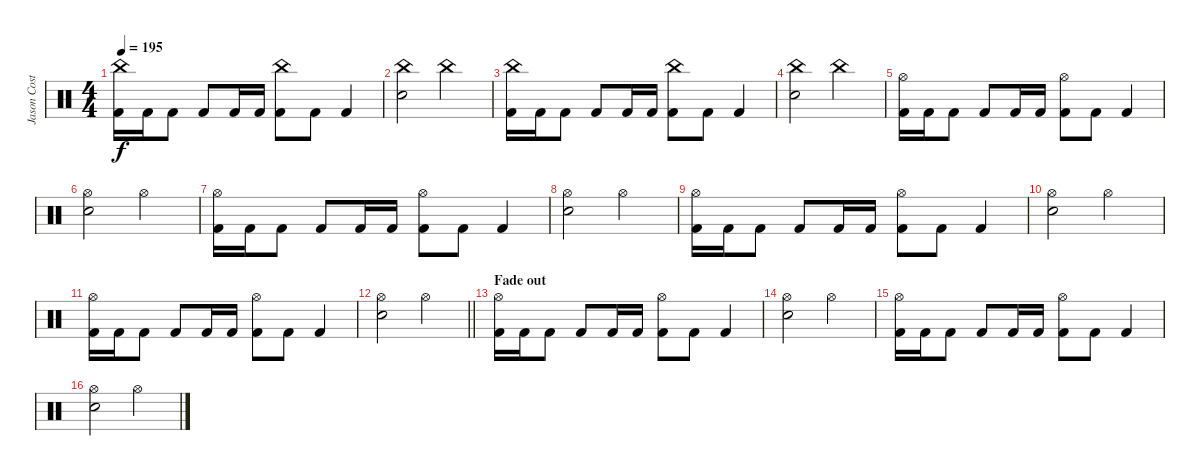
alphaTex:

\track ("Jason Costa" "Jason Cost") {instrument percussion}
\staff {score}
\articulation defaults
\ts (4 4)
\tempo 195
\clef neutral
\ks c
("China (hit)" "Kick (hit) 2").16{dy f} "Kick (hit) 2".16 "Kick (hit) 2".8 "Kick (hit) 2".8 "Kick (hit) 2".16 "Kick (hit) 2".16 ("China (hit)" "Kick (hit) 2").8 "Kick (hit) 2".8 "Kick (hit) 2".4 |
("China (hit)" "Electric Snare (hit)").2 "China (hit)".2 |
("China (hit)" "Kick (hit) 2").16 "Kick (hit) 2".16 "Kick (hit) 2".8 "Kick (hit) 2".8 "Kick (hit) 2".16 "Kick (hit) 2".16 ("China (hit)" "Kick (hit) 2").8 "Kick (hit) 2".8 "Kick (hit) 2".4 |
("China (hit)" "Electric Snare (hit)").2 "China (hit)".2 |
("Hi-Hat (open)" "Kick (hit) 2").16 "Kick (hit) 2".16 "Kick (hit) 2".8 "Kick (hit) 2".8 "Kick (hit) 2".16 "Kick (hit) 2".16 ("Hi-Hat (open)" "Kick (hit) 2").8 "Kick (hit) 2".8 "Kick (hit) 2".4 |
("Hi-Hat (open)" "Electric Snare (hit)").2 "Hi-Hat (open)".2 |
("Hi-Hat (open)" "Kick (hit) 2").16 "Kick (hit) 2".16 "Kick (hit) 2".8 "Kick (hit) 2".8 "Kick (hit) 2".16 "Kick (hit) 2".16 ("Hi-Hat (open)" "Kick (hit) 2").8 "Kick (hit) 2".8 "Kick (hit) 2".4 |
("Hi-Hat (open)" "Electric Snare (hit)").2 "Hi-Hat (open)".2 |
("Hi-Hat (open)" "Kick (hit) 2").16 "Kick (hit) 2".16 "Kick (hit) 2".8 "Kick (hit) 2".8 "Kick (hit) 2".16 "Kick (hit) 2".16 ("Hi-Hat (open)" "Kick (hit) 2").8 "Kick (hit) 2".8 "Kick (hit) 2".4 |
("Hi-Hat (open)" "Electric Snare (hit)").2 "Hi-Hat (open)".2 |
("Hi-Hat (open)" "Kick (hit) 2").16 "Kick (hit) 2".16 "Kick (hit) 2".8 "Kick (hit) 2".8 "Kick (hit) 2".16 "Kick (hit) 2".16 ("Hi-Hat (open)" "Kick (hit) 2").8 "Kick (hit) 2".8 "Kick (hit) 2".4 |
\barLineRight lightlight
("Hi-Hat (open)" "Electric Snare (hit)").2 "Hi-Hat (open)".2 |
\section ("" "Fade out")
("Hi-Hat (open)" "Kick (hit) 2").16 "Kick (hit) 2".16 "Kick (hit) 2".8 "Kick (hit) 2".8 "Kick (hit) 2".16 "Kick (hit) 2".16 ("Hi-Hat (open)" "Kick (hit) 2").8 "Kick (hit) 2".8 "Kick (hit) 2".4 |
("Hi-Hat (open)" "Electric Snare (hit)").2 "Hi-Hat (open)".2 |
("Hi-Hat (open)" "Kick (hit) 2").16 "Kick (hit) 2".16 "Kick (hit) 2".8 "Kick (hit) 2".8 "Kick (hit) 2".16 "Kick (hit) 2".16 ("Hi-Hat (open)" "Kick (hit) 2").8 "Kick (hit) 2".8 "Kick (hit) 2".4 |
("Hi-Hat (open)" "Electric Snare (hit)").2 "Hi-Hat (open)".2
